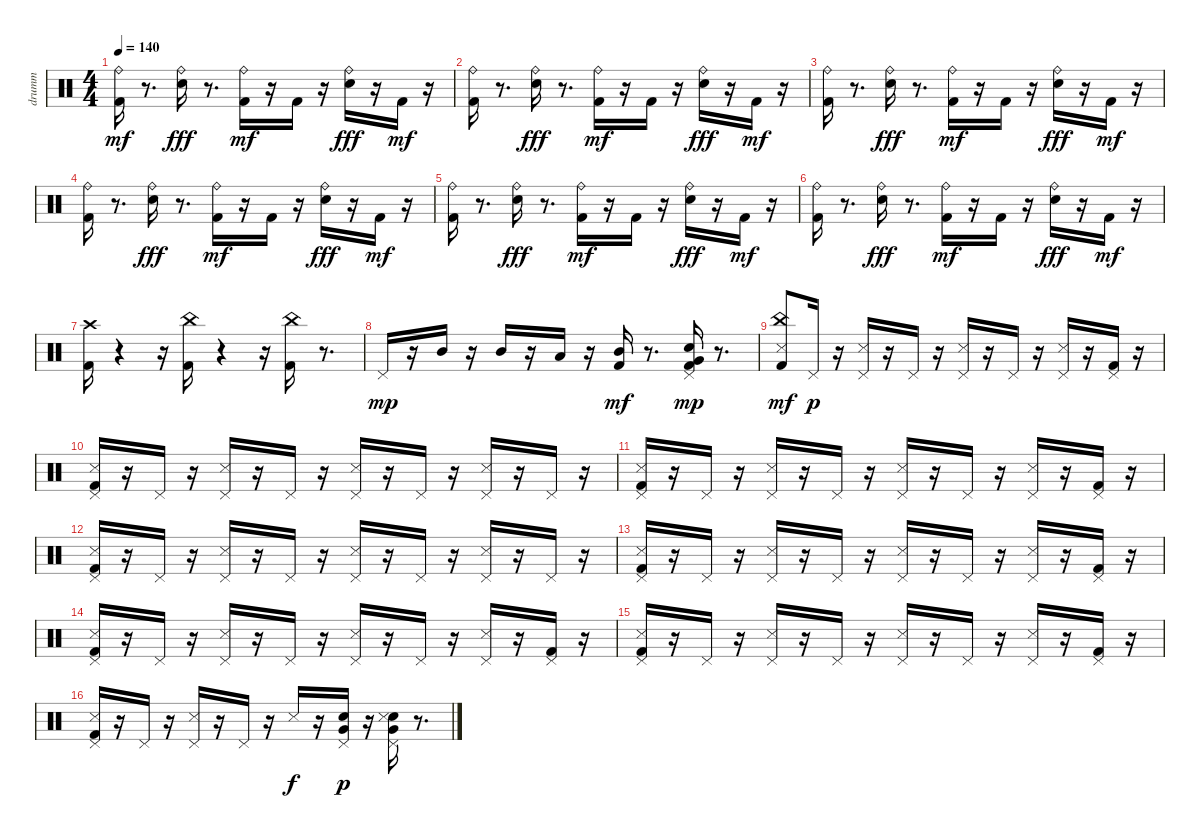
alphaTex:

\track ("drumm" "drumm") {instrument percussion}
\staff {score}
\articulation defaults
\ts (4 4)
\tempo 140
\clef neutral
\ks c
("Ride (bell)" "Kick (hit) 2").16{dy mf} r.8{d} ("Ride (bell)" "Electric Snare (hit)").16{dy fff} r.8{d} ("Ride (bell)" "Kick (hit) 2").16{dy mf} r.16 "Kick (hit) 2".16 r.16 ("Ride (bell)" "Electric Snare (hit)").16{dy fff} r.16 "Kick (hit) 2".16{dy mf} r.16 |
("Ride (bell)" "Kick (hit) 2").16 r.8{d} ("Ride (bell)" "Electric Snare (hit)").16{dy fff} r.8{d} ("Ride (bell)" "Kick (hit) 2").16{dy mf} r.16 "Kick (hit) 2".16 r.16 ("Ride (bell)" "Electric Snare (hit)").16{dy fff} r.16 "Kick (hit) 2".16{dy mf} r.16 |
("Ride (bell)" "Kick (hit) 2").16 r.8{d} ("Ride (bell)" "Electric Snare (hit)").16{dy fff} r.8{d} ("Ride (bell)" "Kick (hit) 2").16{dy mf} r.16 "Kick (hit) 2".16 r.16 ("Ride (bell)" "Electric Snare (hit)").16{dy fff} r.16 "Kick (hit) 2".16{dy mf} r.16 |
("Ride (bell)" "Kick (hit) 2").16 r.8{d} ("Ride (bell)" "Electric Snare (hit)").16{dy fff} r.8{d} ("Ride (bell)" "Kick (hit) 2").16{dy mf} r.16 "Kick (hit) 2".16 r.16 ("Ride (bell)" "Electric Snare (hit)").16{dy fff} r.16 "Kick (hit) 2".16{dy mf} r.16 |
("Ride (bell)" "Kick (hit) 2").16 r.8{d} ("Ride (bell)" "Electric Snare (hit)").16{dy fff} r.8{d} ("Ride (bell)" "Kick (hit) 2").16{dy mf} r.16 "Kick (hit) 2".16 r.16 ("Ride (bell)" "Electric Snare (hit)").16{dy fff} r.16 "Kick (hit) 2".16{dy mf} r.16 |
("Ride (bell)" "Kick (hit) 2").16 r.8{d} ("Ride (bell)" "Electric Snare (hit)").16{dy fff} r.8{d} ("Ride (bell)" "Kick (hit) 2").16{dy mf} r.16 "Kick (hit) 2".16 r.16 ("Ride (bell)" "Electric Snare (hit)").16{dy fff} r.16 "Kick (hit) 2".16{dy mf} r.16 |
("Crash high (hit)" "Kick (hit) 2").16 r.4 r.16 ("China (hit)" "Kick (hit) 2").16 r.4 r.16 ("China (hit)" "Kick (hit) 2").16 r.8{d} |
"Pedal Hi-Hat (hit)".16{dy mp} r.16 "Mid Tom (hit)".16 r.16 "Mid Tom (hit)".16 r.16 "Low Tom (hit)".16 r.16 ("Mid Tom (hit)" "Kick (hit) 2").16{dy mf} r.8{d} ("Pedal Hi-Hat (hit)" "Electric Snare (hit)" "Kick (hit) 2" "Very Low Tom (hit)").16{dy mp} r.8{d} |
("China (hit)" "Kick (hit) 2" "Snare (side stick) 3").8{dy mf} "Pedal Hi-Hat (hit)".16{dy p} r.16 ("Snare (side stick) 3" "Pedal Hi-Hat (hit)").16 r.16 "Pedal Hi-Hat (hit)".16 r.16 ("Snare (side stick) 3" "Pedal Hi-Hat (hit)").16 r.16 "Pedal Hi-Hat (hit)".16 r.16 ("Snare (side stick) 3" "Pedal Hi-Hat (hit)").16 r.16 ("Kick (hit) 2" "Pedal Hi-Hat (hit)").16 r.16 |
("Kick (hit) 2" "Snare (side stick) 3" "Pedal Hi-Hat (hit)").16 r.16 "Pedal Hi-Hat (hit)".16 r.16 ("Snare (side stick) 3" "Pedal Hi-Hat (hit)").16 r.16 "Pedal Hi-Hat (hit)".16 r.16 ("Snare (side stick) 3" "Pedal Hi-Hat (hit)").16 r.16 "Pedal Hi-Hat (hit)".16 r.16 ("Snare (side stick) 3" "Pedal Hi-Hat (hit)").16 r.16 "Pedal Hi-Hat (hit)".16 r.16 |
("Kick (hit) 2" "Snare (side stick) 3" "Pedal Hi-Hat (hit)").16 r.16 "Pedal Hi-Hat (hit)".16 r.16 ("Snare (side stick) 3" "Pedal Hi-Hat (hit)").16 r.16 "Pedal Hi-Hat (hit)".16 r.16 ("Snare (side stick) 3" "Pedal Hi-Hat (hit)").16 r.16 "Pedal Hi-Hat (hit)".16 r.16 ("Snare (side stick) 3" "Pedal Hi-Hat (hit)").16 r.16 ("Kick (hit) 2" "Pedal Hi-Hat (hit)").16 r.16 |
("Kick (hit) 2" "Snare (side stick) 3" "Pedal Hi-Hat (hit)").16 r.16 "Pedal Hi-Hat (hit)".16 r.16 ("Snare (side stick) 3" "Pedal Hi-Hat (hit)").16 r.16 "Pedal Hi-Hat (hit)".16 r.16 ("Snare (side stick) 3" "Pedal Hi-Hat (hit)").16 r.16 "Pedal Hi-Hat (hit)".16 r.16 ("Snare (side stick) 3" "Pedal Hi-Hat (hit)").16 r.16 "Pedal Hi-Hat (hit)".16 r.16 |
("Kick (hit) 2" "Snare (side stick) 3" "Pedal Hi-Hat (hit)").16 r.16 "Pedal Hi-Hat (hit)".16 r.16 ("Snare (side stick) 3" "Pedal Hi-Hat (hit)").16 r.16 "Pedal Hi-Hat (hit)".16 r.16 ("Snare (side stick) 3" "Pedal Hi-Hat (hit)").16 r.16 "Pedal Hi-Hat (hit)".16 r.16 ("Snare (side stick) 3" "Pedal Hi-Hat (hit)").16 r.16 ("Kick (hit) 2" "Pedal Hi-Hat (hit)").16 r.16 |
("Kick (hit) 2" "Snare (side stick) 3" "Pedal Hi-Hat (hit)").16 r.16 "Pedal Hi-Hat (hit)".16 r.16 ("Snare (side stick) 3" "Pedal Hi-Hat (hit)").16 r.16 "Pedal Hi-Hat (hit)".16 r.16 ("Snare (side stick) 3" "Pedal Hi-Hat (hit)").16 r.16 "Pedal Hi-Hat (hit)".16 r.16 ("Snare (side stick) 3" "Pedal Hi-Hat (hit)").16 r.16 ("Kick (hit) 2" "Pedal Hi-Hat (hit)").16 r.16 |
("Kick (hit) 2" "Snare (side stick) 3" "Pedal Hi-Hat (hit)").16 r.16 "Pedal Hi-Hat (hit)".16 r.16 ("Snare (side stick) 3" "Pedal Hi-Hat (hit)").16 r.16 "Pedal Hi-Hat (hit)".16 r.16 ("Snare (side stick) 3" "Pedal Hi-Hat (hit)").16 r.16 "Pedal Hi-Hat (hit)".16 r.16 ("Snare (side stick) 3" "Pedal Hi-Hat (hit)").16 r.16 ("Kick (hit) 2" "Pedal Hi-Hat (hit)").16 r.16 |
("Kick (hit) 2" "Snare (side stick) 3" "Pedal Hi-Hat (hit)").16 r.16 "Pedal Hi-Hat (hit)".16 r.16 ("Snare (side stick) 3" "Pedal Hi-Hat (hit)").16 r.16 "Pedal Hi-Hat (hit)".16 r.16 "Snare (side stick) 3".16{dy f} r.16 ("Electric Snare (hit)" "Very Low Tom (hit)" "Pedal Hi-Hat (hit)").16{dy p} r.16 ("Very Low Tom (hit)" "Electric Snare (hit)" "Snare (side stick) 3" "Pedal Hi-Hat (hit)").16 r.8{d}
